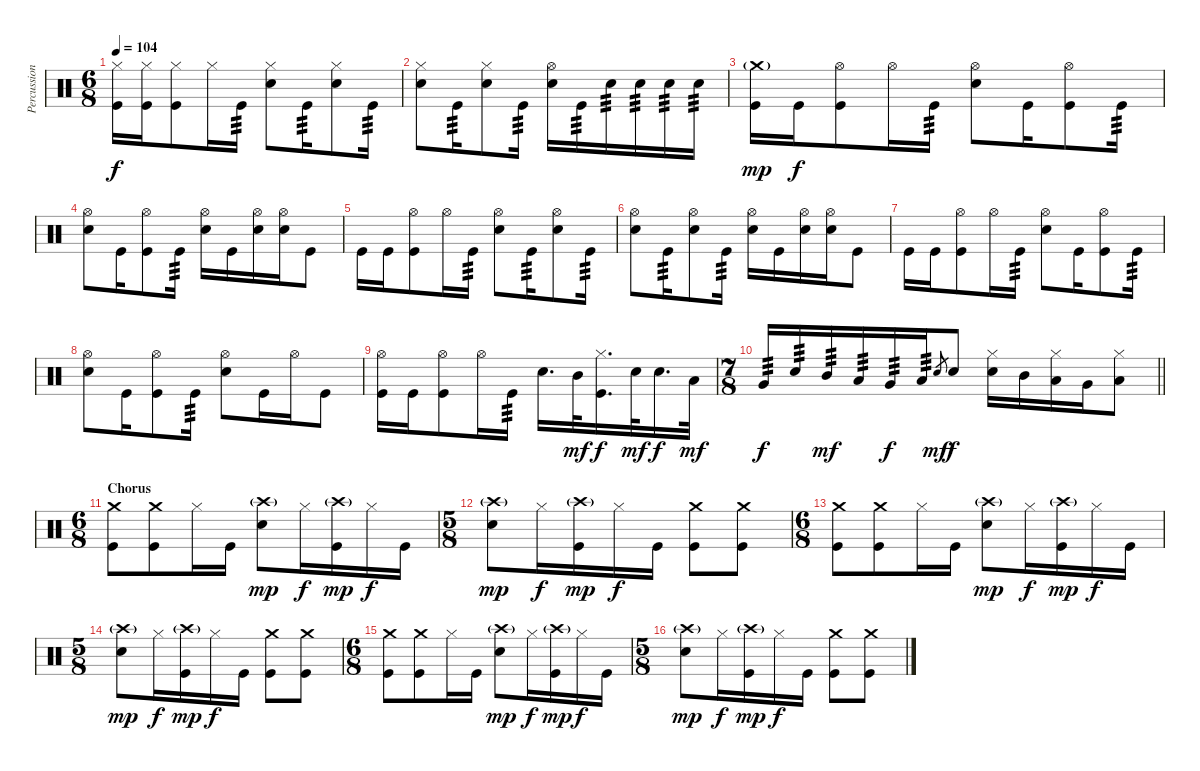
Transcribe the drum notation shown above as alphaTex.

\track ("Percussion" "Percussion") {instrument percussion}
\staff {score}
\articulation defaults
\ts (6 8)
\tempo 104
\clef neutral
\ks c
("Hi-Hat (closed)" "Kick (hit)").16{dy f} ("Hi-Hat (closed)" "Kick (hit)").16 ("Hi-Hat (closed)" "Kick (hit)").8 "Hi-Hat (closed)".16 "Kick (hit)".16{tp 3} ("Hi-Hat (closed)" "Snare (hit) 2").8 "Kick (hit)".16{tp 3} ("Hi-Hat (closed)" "Snare (hit) 2").8 "Kick (hit)".16{tp 3} |
("Hi-Hat (closed)" "Snare (hit) 2").8 "Kick (hit)".16{tp 3} ("Hi-Hat (closed)" "Snare (hit) 2").8 "Kick (hit)".16{tp 3} ("Hi-Hat (open)" "Snare (hit) 2").16 "Kick (hit)".16{tp 3} "Snare (hit) 2".16{tp 3} "Snare (hit) 2".16{tp 3} "Snare (hit) 2".16{tp 3} "Snare (hit) 2".16{tp 3} |
("Crash medium (hit)"{g} "Kick (hit)").16{dy mp} "Kick (hit)".16{dy f} ("Hi-Hat (open)" "Kick (hit)").8 "Hi-Hat (open)".16 "Kick (hit)".16{tp 3} ("Hi-Hat (open)" "Snare (hit) 2").8 "Kick (hit)".16 ("Hi-Hat (open)" "Kick (hit)").8 "Kick (hit)".16{tp 3} |
("Hi-Hat (open)" "Snare (hit) 2").8 "Kick (hit)".16 ("Hi-Hat (open)" "Kick (hit)").8 "Kick (hit)".16{tp 3} ("Hi-Hat (open)" "Snare (hit) 2").16 "Kick (hit)".16 ("Hi-Hat (open)" "Snare (hit) 2").16 ("Hi-Hat (open)" "Snare (hit) 2").16 "Kick (hit)".8 |
"Kick (hit)".16 "Kick (hit)".16 ("Hi-Hat (open)" "Kick (hit)").8 "Hi-Hat (open)".16 "Kick (hit)".16{tp 3} ("Hi-Hat (open)" "Snare (hit) 2").8 "Kick (hit)".16{tp 3} ("Hi-Hat (open)" "Snare (hit) 2").8 "Kick (hit)".16{tp 3} |
("Hi-Hat (open)" "Snare (hit) 2").8 "Kick (hit)".16{tp 3} ("Hi-Hat (open)" "Snare (hit) 2").8 "Kick (hit)".16{tp 3} ("Hi-Hat (open)" "Snare (hit) 2").16 "Kick (hit)".16 ("Hi-Hat (open)" "Snare (hit) 2").16 ("Hi-Hat (open)" "Snare (hit) 2").16 "Kick (hit)".8 |
"Kick (hit)".16 "Kick (hit)".16 ("Hi-Hat (open)" "Kick (hit)").8 "Hi-Hat (open)".16 "Kick (hit)".16{tp 3} ("Hi-Hat (open)" "Snare (hit) 2").8 "Kick (hit)".16 ("Hi-Hat (open)" "Kick (hit)").8 "Kick (hit)".16{tp 3} |
("Hi-Hat (open)" "Snare (hit) 2").8 "Kick (hit)".16 ("Hi-Hat (open)" "Kick (hit)").8 "Kick (hit)".16{tp 3} ("Hi-Hat (open)" "Snare (hit) 2").8 "Kick (hit)".16 "Hi-Hat (open)".16 "Kick (hit)".8 |
("Hi-Hat (open)" "Kick (hit)").16 "Kick (hit)".16 ("Hi-Hat (open)" "Kick (hit)").8 "Hi-Hat (open)".16 "Kick (hit)".16{tp 3} "Snare (hit) 2".16{d} "Mid Tom (hit)".32{dy mf} ("Hi-Hat (closed)" "Kick (hit)").16{d dy f} "Snare (hit) 2".32{dy mf} "Snare (hit) 2".16{d dy f} "Low Tom (hit)".32{dy mf} |
\ts (7 8)
\barLineRight lightlight "Very Low Tom (hit)".16{tp 3 dy f} "Snare (hit) 2".16{tp 3} "Mid Tom (hit)".16{tp 3 dy mf} "Low Tom (hit)".16{tp 3} "Very Low Tom (hit)".16{tp 3 dy f} "Low Floor Tom (hit)".16{tp 3} "Snare (hit) 2".8{gr dy mf} "Snare (hit) 2".8{dy f}
("Hi-Hat (closed)" "Snare (hit) 2").16 "Mid Tom (hit)".16 ("Hi-Hat (closed)" "Low Tom (hit)").16 "Very Low Tom (hit)".16 ("Hi-Hat (closed)" "Low Floor Tom (hit)").8 |
\ts (6 8)
\section ("" "Chorus")
("Crash medium (hit)" "Kick (hit)").8 ("Crash medium (hit)" "Kick (hit)").8 "Hi-Hat (closed)".16 "Kick (hit)".16 ("Crash high (hit)"{g} "Snare (hit) 2").8{dy mp} "Hi-Hat (closed)".16{dy f} ("Crash high (hit)"{g} "Kick (hit)").16{dy mp} "Hi-Hat (closed)".16{dy f} "Kick (hit)".16 |
\ts (5 8)
("Crash high (hit)"{g} "Snare (hit) 2").8{dy mp} "Hi-Hat (closed)".16{dy f} ("Crash high (hit)"{g} "Kick (hit)").16{dy mp} "Hi-Hat (closed)".16{dy f} "Kick (hit)".16 ("Crash medium (hit)" "Kick (hit)").8 ("Crash medium (hit)" "Kick (hit)").8 |
\ts (6 8)
("Crash medium (hit)" "Kick (hit)").8 ("Crash medium (hit)" "Kick (hit)").8 "Hi-Hat (closed)".16 "Kick (hit)".16 ("Crash high (hit)"{g} "Snare (hit) 2").8{dy mp} "Hi-Hat (closed)".16{dy f} ("Crash high (hit)"{g} "Kick (hit)").16{dy mp} "Hi-Hat (closed)".16{dy f} "Kick (hit)".16 |
\ts (5 8)
("Crash high (hit)"{g} "Snare (hit) 2").8{dy mp} "Hi-Hat (closed)".16{dy f} ("Crash high (hit)"{g} "Kick (hit)").16{dy mp} "Hi-Hat (closed)".16{dy f} "Kick (hit)".16 ("Crash medium (hit)" "Kick (hit)").8 ("Crash medium (hit)" "Kick (hit)").8 |
\ts (6 8)
("Crash medium (hit)" "Kick (hit)").8 ("Crash medium (hit)" "Kick (hit)").8 "Hi-Hat (closed)".16 "Kick (hit)".16 ("Crash high (hit)"{g} "Snare (hit) 2").8{dy mp} "Hi-Hat (closed)".16{dy f} ("Crash high (hit)"{g} "Kick (hit)").16{dy mp} "Hi-Hat (closed)".16{dy f} "Kick (hit)".16 |
\ts (5 8)
("Crash high (hit)"{g} "Snare (hit) 2").8{dy mp} "Hi-Hat (closed)".16{dy f} ("Crash high (hit)"{g} "Kick (hit)").16{dy mp} "Hi-Hat (closed)".16{dy f} "Kick (hit)".16 ("Crash medium (hit)" "Kick (hit)").8 ("Crash medium (hit)" "Kick (hit)").8
